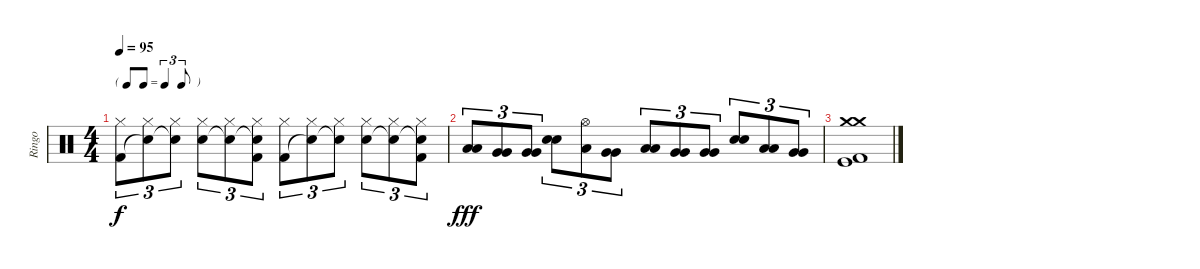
\track ("Ringo" "Ringo") {instrument percussion}
\staff {score}
\articulation defaults
\ts (4 4)
\tf triplet8th
\tempo 95
\clef neutral
\ks c
("Hi-Hat (closed)" "Kick (hit) 2").8{tu (3 2) dy f} ("Hi-Hat (closed)" "Snare (hit)"{t}).8{tu (3 2)} ("Hi-Hat (closed)" "Snare (hit)"{t}).8{tu (3 2)} ("Hi-Hat (closed)" "Snare (hit) 2").8{tu (3 2)} ("Hi-Hat (closed)" "Snare (hit)"{t}).8{tu (3 2)} ("Hi-Hat (closed)" "Snare (hit)"{t} "Kick (hit) 2").8{tu (3 2)} ("Hi-Hat (closed)" "Kick (hit) 2").8{tu (3 2)} ("Hi-Hat (closed)" "Snare (hit)"{t}).8{tu (3 2)} ("Hi-Hat (closed)" "Snare (hit)"{t}).8{tu (3 2)} ("Hi-Hat (closed)" "Snare (hit) 2").8{tu (3 2)} ("Hi-Hat (closed)" "Snare (hit)"{t}).8{tu (3 2)} ("Hi-Hat (closed)" "Snare (hit)"{t} "Kick (hit) 2").8{tu (3 2)} |
("Low Tom (hit)" "Low Tom (hit)").8{tu (3 2) dy fff} ("Very Low Tom (hit)" "Very Low Tom (hit)").8{tu (3 2)} ("Very Low Tom (hit)" "Very Low Tom (hit)").8{tu (3 2)} ("Snare (hit) 2" "Snare (hit) 2").8{tu (3 2)} ("Low Tom (hit)" "Hi-Hat (open)").8{tu (3 2)} ("Very Low Tom (hit)" "Very Low Tom (hit)").8{tu (3 2)} ("Low Tom (hit)" "Low Tom (hit)").8{tu (3 2)} ("Very Low Tom (hit)" "Very Low Tom (hit)").8{tu (3 2)} ("Very Low Tom (hit)" "Very Low Tom (hit)").8{tu (3 2)} ("Snare (hit) 2" "Snare (hit) 2").8{tu (3 2)} ("Low Tom (hit)" "Low Tom (hit)").8{tu (3 2)} ("Very Low Tom (hit)" "Very Low Tom (hit)").8{tu (3 2)} |
("Crash medium (hit)" "Crash medium (hit)" "Kick (hit) 2" "Kick (hit)").1
